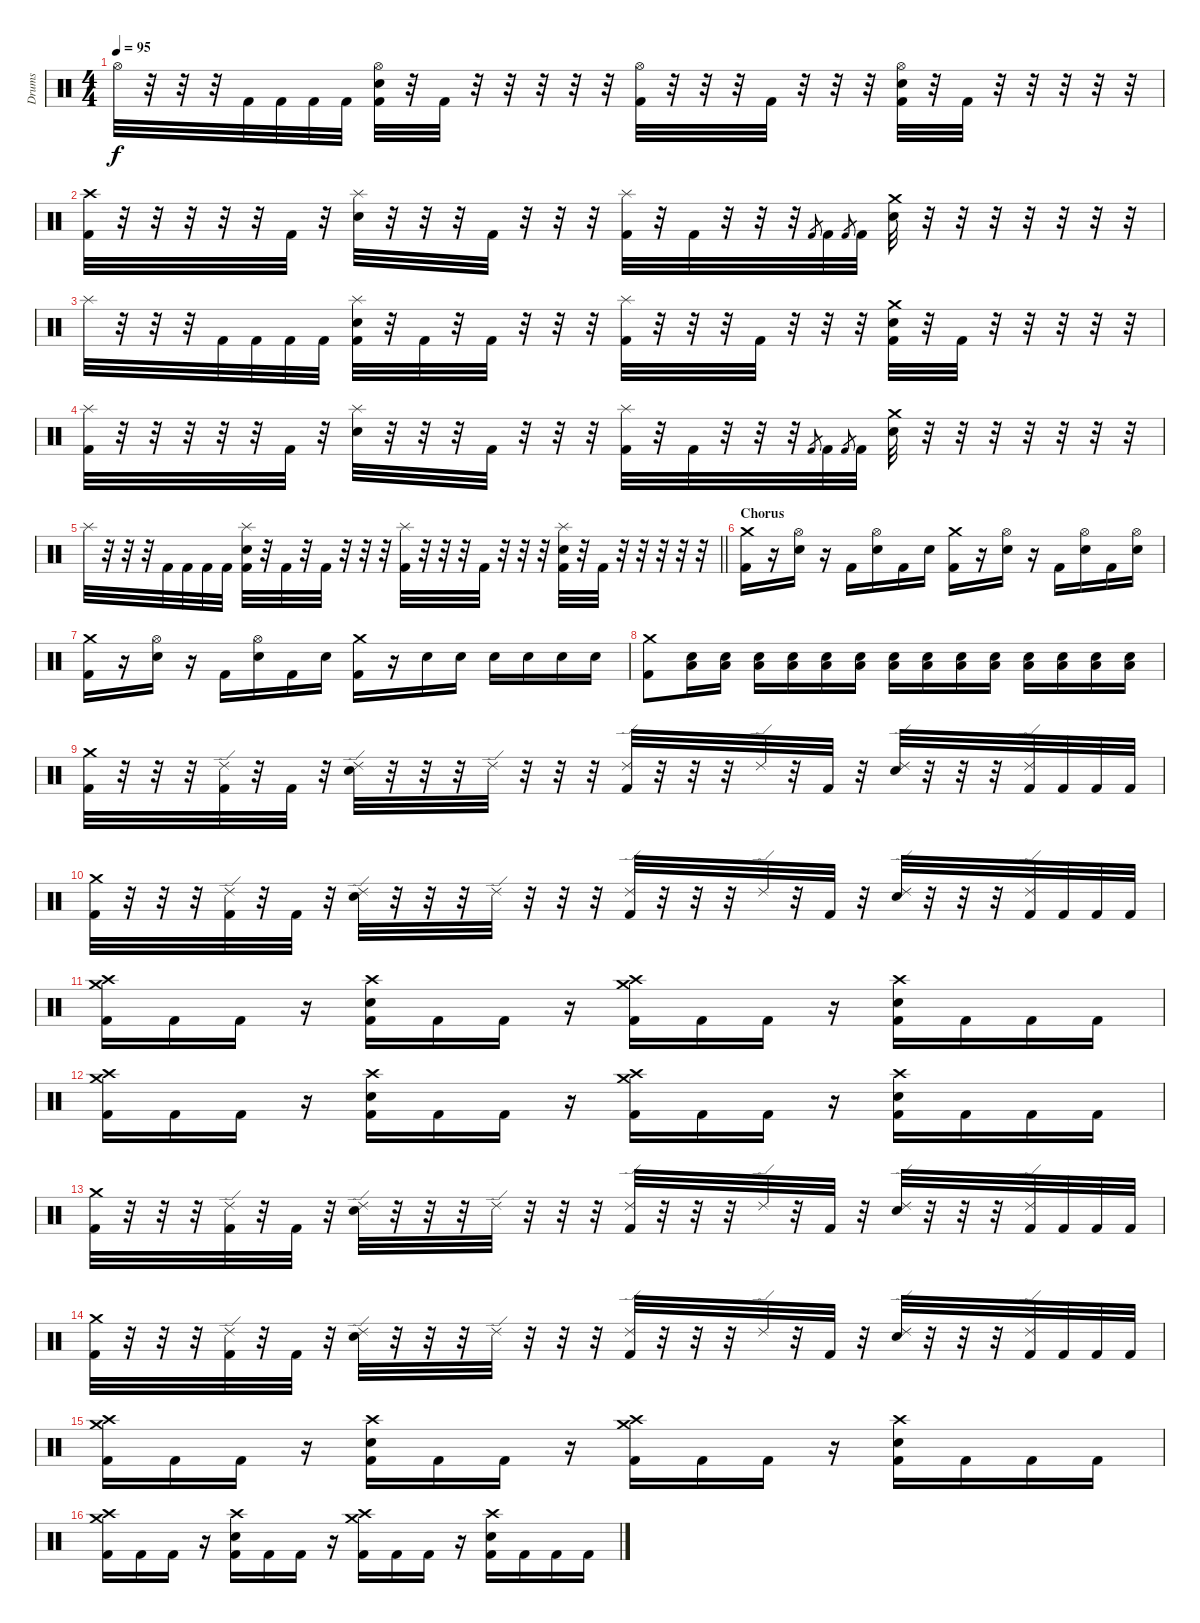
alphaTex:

\track ("Drums" "Drums") {instrument percussion}
\staff {score}
\articulation defaults
\ts (4 4)
\tempo 95
\clef neutral
\ks c "Hi-Hat (open)".32{dy f}
r.32 r.32 r.32 "Kick (hit) 2".32 "Kick (hit) 2".32 "Kick (hit) 2".32 "Kick (hit) 2".32 ("Hi-Hat (open)" "Electric Snare (hit)" "Kick (hit) 2").32 r.32 "Kick (hit) 2".32 r.32 r.32 r.32 r.32 r.32 ("Hi-Hat (open)" "Kick (hit) 2").32 r.32 r.32 r.32 "Kick (hit) 2".32 r.32 r.32 r.32 ("Hi-Hat (open)" "Electric Snare (hit)" "Kick (hit) 2").32 r.32 "Kick (hit) 2".32 r.32 r.32 r.32 r.32 r.32 |
("Crash high (hit)" "Kick (hit) 2").32 r.32 r.32 r.32 r.32 r.32 "Kick (hit) 2".32 r.32 ("Splash (hit)" "Electric Snare (hit)").32 r.32 r.32 r.32 "Kick (hit) 2".32 r.32 r.32 r.32 ("Splash (hit)" "Kick (hit) 2").32 r.32 "Kick (hit) 2".32 r.32 r.32 r.32 "Kick (hit) 2".8{gr} "Kick (hit) 2".32 "Kick (hit) 2".8{gr} "Kick (hit) 2".32 ("Crash medium (hit)" "Electric Snare (hit)").32 r.32 r.32 r.32 r.32 r.32 r.32 r.32 |
"Splash (hit)".32 r.32 r.32 r.32 "Kick (hit) 2".32 "Kick (hit) 2".32 "Kick (hit) 2".32 "Kick (hit) 2".32 ("Splash (hit)" "Electric Snare (hit)" "Kick (hit) 2").32 r.32 "Kick (hit) 2".32 r.32 "Kick (hit) 2".32 r.32 r.32 r.32 ("Splash (hit)" "Kick (hit) 2").32 r.32 r.32 r.32 "Kick (hit) 2".32 r.32 r.32 r.32 ("Crash medium (hit)" "Electric Snare (hit)" "Kick (hit) 2").32 r.32 "Kick (hit) 2".32 r.32 r.32 r.32 r.32 r.32 |
("Splash (hit)" "Kick (hit) 2").32 r.32 r.32 r.32 r.32 r.32 "Kick (hit) 2".32 r.32 ("Splash (hit)" "Electric Snare (hit)").32 r.32 r.32 r.32 "Kick (hit) 2".32 r.32 r.32 r.32 ("Splash (hit)" "Kick (hit) 2").32 r.32 "Kick (hit) 2".32 r.32 r.32 r.32 "Kick (hit) 2".8{gr} "Kick (hit) 2".32 "Kick (hit) 2".8{gr} "Kick (hit) 2".32 ("Crash medium (hit)" "Electric Snare (hit)").32 r.32 r.32 r.32 r.32 r.32 r.32 r.32 |
\barLineRight lightlight "Splash (hit)".32
r.32 r.32 r.32 "Kick (hit) 2".32 "Kick (hit) 2".32 "Kick (hit) 2".32 "Kick (hit) 2".32 ("Splash (hit)" "Electric Snare (hit)" "Kick (hit) 2").32 r.32 "Kick (hit) 2".32 r.32 "Kick (hit) 2".32 r.32 r.32 r.32 ("Splash (hit)" "Kick (hit) 2").32 r.32 r.32 r.32 "Kick (hit) 2".32 r.32 r.32 r.32 ("Splash (hit)" "Electric Snare (hit)" "Kick (hit) 2").32 r.32 "Kick (hit) 2".32 r.32 r.32 r.32 r.32 r.32 |
\section ("" "Chorus")
("Crash medium (hit)" "Kick (hit) 2").16 r.16 ("Hi-Hat (open)" "Electric Snare (hit)").16 r.16 "Kick (hit) 2".16 ("Hi-Hat (open)" "Electric Snare (hit)").16 "Kick (hit) 2".16 "Electric Snare (hit)".16 ("Crash medium (hit)" "Kick (hit) 2").16 r.16 ("Hi-Hat (open)" "Electric Snare (hit)").16 r.16 "Kick (hit) 2".16 ("Hi-Hat (open)" "Electric Snare (hit)").16 "Kick (hit) 2".16 ("Hi-Hat (open)" "Electric Snare (hit)").16 |
("Crash medium (hit)" "Kick (hit) 2").16 r.16 ("Hi-Hat (open)" "Electric Snare (hit)").16 r.16 "Kick (hit) 2".16 ("Hi-Hat (open)" "Electric Snare (hit)").16 "Kick (hit) 2".16 "Electric Snare (hit)".16 ("Crash medium (hit)" "Kick (hit) 2").16 r.16 "Electric Snare (hit)".16 "Electric Snare (hit)".16 "Electric Snare (hit)".16 "Electric Snare (hit)".16 "Electric Snare (hit)".16 "Electric Snare (hit)".16 |
("Crash medium (hit)" "Kick (hit) 2").8 ("Low Floor Tom (hit)" "Electric Snare (hit)").16 ("Low Floor Tom (hit)" "Electric Snare (hit)").16 ("Low Floor Tom (hit)" "Electric Snare (hit)").16 ("Low Floor Tom (hit)" "Electric Snare (hit)").16 ("Low Floor Tom (hit)" "Electric Snare (hit)").16 ("Low Floor Tom (hit)" "Electric Snare (hit)").16 ("Low Floor Tom (hit)" "Electric Snare (hit)").16 ("Low Floor Tom (hit)" "Electric Snare (hit)").16 ("Low Floor Tom (hit)" "Electric Snare (hit)").16 ("Low Floor Tom (hit)" "Electric Snare (hit)").16 ("Low Floor Tom (hit)" "Electric Snare (hit)").16 ("Low Floor Tom (hit)" "Electric Snare (hit)").16 ("Low Floor Tom (hit)" "Electric Snare (hit)").16 ("Low Floor Tom (hit)" "Electric Snare (hit)").16 |
("Crash medium (hit)" "Kick (hit) 2").32 r.32 r.32 r.32 ("Ride (edge) 2" "Kick (hit) 2").32 r.32 "Kick (hit) 2".32 r.32 ("Ride (edge) 2" "Electric Snare (hit)").32 r.32 r.32 r.32 "Ride (edge) 2".32 r.32 r.32 r.32 ("Ride (edge) 2" "Kick (hit) 2").32 r.32 r.32 r.32 "Ride (edge) 2".32 r.32 "Kick (hit) 2".32 r.32 ("Ride (edge) 2" "Electric Snare (hit)").32 r.32 r.32 r.32 ("Ride (edge) 2" "Kick (hit) 2").32 "Kick (hit) 2".32 "Kick (hit) 2".32 "Kick (hit) 2".32 |
("Crash medium (hit)" "Kick (hit) 2").32 r.32 r.32 r.32 ("Ride (edge) 2" "Kick (hit) 2").32 r.32 "Kick (hit) 2".32 r.32 ("Ride (edge) 2" "Electric Snare (hit)").32 r.32 r.32 r.32 "Ride (edge) 2".32 r.32 r.32 r.32 ("Ride (edge) 2" "Kick (hit) 2").32 r.32 r.32 r.32 "Ride (edge) 2".32 r.32 "Kick (hit) 2".32 r.32 ("Ride (edge) 2" "Electric Snare (hit)").32 r.32 r.32 r.32 ("Ride (edge) 2" "Kick (hit) 2").32 "Kick (hit) 2".32 "Kick (hit) 2".32 "Kick (hit) 2".32 |
("Crash medium (hit)" "Crash high (hit)" "Kick (hit) 2").16 "Kick (hit) 2".16 "Kick (hit) 2".16 r.16 ("Crash high (hit)" "Electric Snare (hit)" "Kick (hit) 2").16 "Kick (hit) 2".16 "Kick (hit) 2".16 r.16 ("Crash medium (hit)" "Crash high (hit)" "Kick (hit) 2").16 "Kick (hit) 2".16 "Kick (hit) 2".16 r.16 ("Crash high (hit)" "Electric Snare (hit)" "Kick (hit) 2").16 "Kick (hit) 2".16 "Kick (hit) 2".16 "Kick (hit) 2".16 |
("Crash medium (hit)" "Crash high (hit)" "Kick (hit) 2").16 "Kick (hit) 2".16 "Kick (hit) 2".16 r.16 ("Crash high (hit)" "Electric Snare (hit)" "Kick (hit) 2").16 "Kick (hit) 2".16 "Kick (hit) 2".16 r.16 ("Crash medium (hit)" "Crash high (hit)" "Kick (hit) 2").16 "Kick (hit) 2".16 "Kick (hit) 2".16 r.16 ("Crash high (hit)" "Electric Snare (hit)" "Kick (hit) 2").16 "Kick (hit) 2".16 "Kick (hit) 2".16 "Kick (hit) 2".16 |
("Crash medium (hit)" "Kick (hit) 2").32 r.32 r.32 r.32 ("Ride (edge) 2" "Kick (hit) 2").32 r.32 "Kick (hit) 2".32 r.32 ("Ride (edge) 2" "Electric Snare (hit)").32 r.32 r.32 r.32 "Ride (edge) 2".32 r.32 r.32 r.32 ("Ride (edge) 2" "Kick (hit) 2").32 r.32 r.32 r.32 "Ride (edge) 2".32 r.32 "Kick (hit) 2".32 r.32 ("Ride (edge) 2" "Electric Snare (hit)").32 r.32 r.32 r.32 ("Ride (edge) 2" "Kick (hit) 2").32 "Kick (hit) 2".32 "Kick (hit) 2".32 "Kick (hit) 2".32 |
("Crash medium (hit)" "Kick (hit) 2").32 r.32 r.32 r.32 ("Ride (edge) 2" "Kick (hit) 2").32 r.32 "Kick (hit) 2".32 r.32 ("Ride (edge) 2" "Electric Snare (hit)").32 r.32 r.32 r.32 "Ride (edge) 2".32 r.32 r.32 r.32 ("Ride (edge) 2" "Kick (hit) 2").32 r.32 r.32 r.32 "Ride (edge) 2".32 r.32 "Kick (hit) 2".32 r.32 ("Ride (edge) 2" "Electric Snare (hit)").32 r.32 r.32 r.32 ("Ride (edge) 2" "Kick (hit) 2").32 "Kick (hit) 2".32 "Kick (hit) 2".32 "Kick (hit) 2".32 |
("Crash medium (hit)" "Crash high (hit)" "Kick (hit) 2").16 "Kick (hit) 2".16 "Kick (hit) 2".16 r.16 ("Crash high (hit)" "Electric Snare (hit)" "Kick (hit) 2").16 "Kick (hit) 2".16 "Kick (hit) 2".16 r.16 ("Crash medium (hit)" "Crash high (hit)" "Kick (hit) 2").16 "Kick (hit) 2".16 "Kick (hit) 2".16 r.16 ("Crash high (hit)" "Electric Snare (hit)" "Kick (hit) 2").16 "Kick (hit) 2".16 "Kick (hit) 2".16 "Kick (hit) 2".16 |
("Crash medium (hit)" "Crash high (hit)" "Kick (hit) 2").16 "Kick (hit) 2".16 "Kick (hit) 2".16 r.16 ("Crash high (hit)" "Electric Snare (hit)" "Kick (hit) 2").16 "Kick (hit) 2".16 "Kick (hit) 2".16 r.16 ("Crash medium (hit)" "Crash high (hit)" "Kick (hit) 2").16 "Kick (hit) 2".16 "Kick (hit) 2".16 r.16 ("Crash high (hit)" "Electric Snare (hit)" "Kick (hit) 2").16 "Kick (hit) 2".16 "Kick (hit) 2".16 "Kick (hit) 2".16
